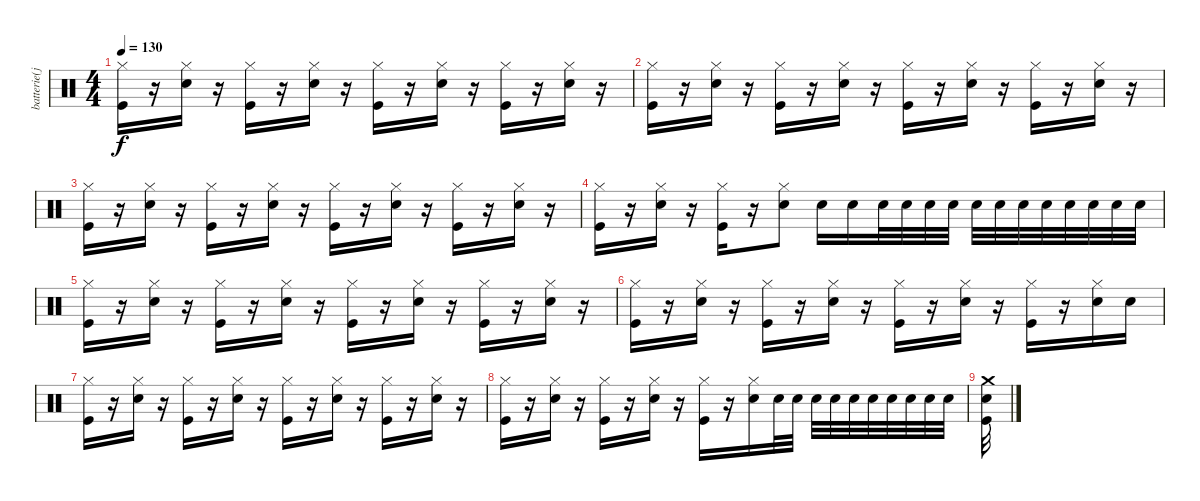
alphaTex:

\track ("batterie(joost)" "batterie(j") {instrument percussion}
\staff {score}
\articulation defaults
\ts (4 4)
\tempo 130
\clef neutral
\ks c
("Hi-Hat (closed)" "Kick (hit)").16{dy f} r.16 ("Hi-Hat (closed)" "Snare (hit) 2").16 r.16 ("Hi-Hat (closed)" "Kick (hit)").16 r.16 ("Hi-Hat (closed)" "Snare (hit) 2").16 r.16 ("Hi-Hat (closed)" "Kick (hit)").16 r.16 ("Hi-Hat (closed)" "Snare (hit) 2").16 r.16 ("Hi-Hat (closed)" "Kick (hit)").16 r.16 ("Hi-Hat (closed)" "Snare (hit) 2").16 r.16 |
("Hi-Hat (closed)" "Kick (hit)").16 r.16 ("Hi-Hat (closed)" "Snare (hit) 2").16 r.16 ("Hi-Hat (closed)" "Kick (hit)").16 r.16 ("Hi-Hat (closed)" "Snare (hit) 2").16 r.16 ("Hi-Hat (closed)" "Kick (hit)").16 r.16 ("Hi-Hat (closed)" "Snare (hit) 2").16 r.16 ("Hi-Hat (closed)" "Kick (hit)").16 r.16 ("Hi-Hat (closed)" "Snare (hit) 2").16 r.16 |
("Hi-Hat (closed)" "Kick (hit)").16 r.16 ("Hi-Hat (closed)" "Snare (hit) 2").16 r.16 ("Hi-Hat (closed)" "Kick (hit)").16 r.16 ("Hi-Hat (closed)" "Snare (hit) 2").16 r.16 ("Hi-Hat (closed)" "Kick (hit)").16 r.16 ("Hi-Hat (closed)" "Snare (hit) 2").16 r.16 ("Hi-Hat (closed)" "Kick (hit)").16 r.16 ("Hi-Hat (closed)" "Snare (hit) 2").16 r.16 |
("Hi-Hat (closed)" "Kick (hit)").16 r.16 ("Hi-Hat (closed)" "Snare (hit) 2").16 r.16 ("Hi-Hat (closed)" "Kick (hit)").16 r.16 ("Hi-Hat (closed)" "Snare (hit) 2").8 "Snare (hit) 2".16 "Snare (hit) 2".16 "Snare (hit) 2".32 "Snare (hit) 2".32 "Snare (hit) 2".32 "Snare (hit) 2".32 "Snare (hit) 2".32 "Snare (hit) 2".32 "Snare (hit) 2".32 "Snare (hit) 2".32 "Snare (hit) 2".32 "Snare (hit) 2".32 "Snare (hit) 2".32 "Snare (hit) 2".32 |
("Hi-Hat (closed)" "Kick (hit)").16 r.16 ("Hi-Hat (closed)" "Snare (hit) 2").16 r.16 ("Hi-Hat (closed)" "Kick (hit)").16 r.16 ("Hi-Hat (closed)" "Snare (hit) 2").16 r.16 ("Hi-Hat (closed)" "Kick (hit)").16 r.16 ("Hi-Hat (closed)" "Snare (hit) 2").16 r.16 ("Hi-Hat (closed)" "Kick (hit)").16 r.16 ("Hi-Hat (closed)" "Snare (hit) 2").16 r.16 |
("Hi-Hat (closed)" "Kick (hit)").16 r.16 ("Hi-Hat (closed)" "Snare (hit) 2").16 r.16 ("Hi-Hat (closed)" "Kick (hit)").16 r.16 ("Hi-Hat (closed)" "Snare (hit) 2").16 r.16 ("Hi-Hat (closed)" "Kick (hit)").16 r.16 ("Hi-Hat (closed)" "Snare (hit) 2").16 r.16 ("Hi-Hat (closed)" "Kick (hit)").16 r.16 ("Hi-Hat (closed)" "Snare (hit) 2").16 "Snare (hit) 2".16 |
("Hi-Hat (closed)" "Kick (hit)").16 r.16 ("Hi-Hat (closed)" "Snare (hit) 2").16 r.16 ("Hi-Hat (closed)" "Kick (hit)").16 r.16 ("Hi-Hat (closed)" "Snare (hit) 2").16 r.16 ("Hi-Hat (closed)" "Kick (hit)").16 r.16 ("Hi-Hat (closed)" "Snare (hit) 2").16 r.16 ("Hi-Hat (closed)" "Kick (hit)").16 r.16 ("Hi-Hat (closed)" "Snare (hit) 2").16 r.16 |
("Hi-Hat (closed)" "Kick (hit)").16 r.16 ("Hi-Hat (closed)" "Snare (hit) 2").16 r.16 ("Hi-Hat (closed)" "Kick (hit)").16 r.16 ("Hi-Hat (closed)" "Snare (hit) 2").16 r.16 ("Hi-Hat (closed)" "Kick (hit)").16 r.16 ("Hi-Hat (closed)" "Snare (hit) 2").16 "Snare (hit) 2".32 "Snare (hit) 2".32 "Snare (hit) 2".32 "Snare (hit) 2".32 "Snare (hit) 2".32 "Snare (hit) 2".32 "Snare (hit) 2".32 "Snare (hit) 2".32 "Snare (hit) 2".32 "Snare (hit) 2".32 |
("Crash medium (hit)" "Snare (hit) 2" "Kick (hit)").32
